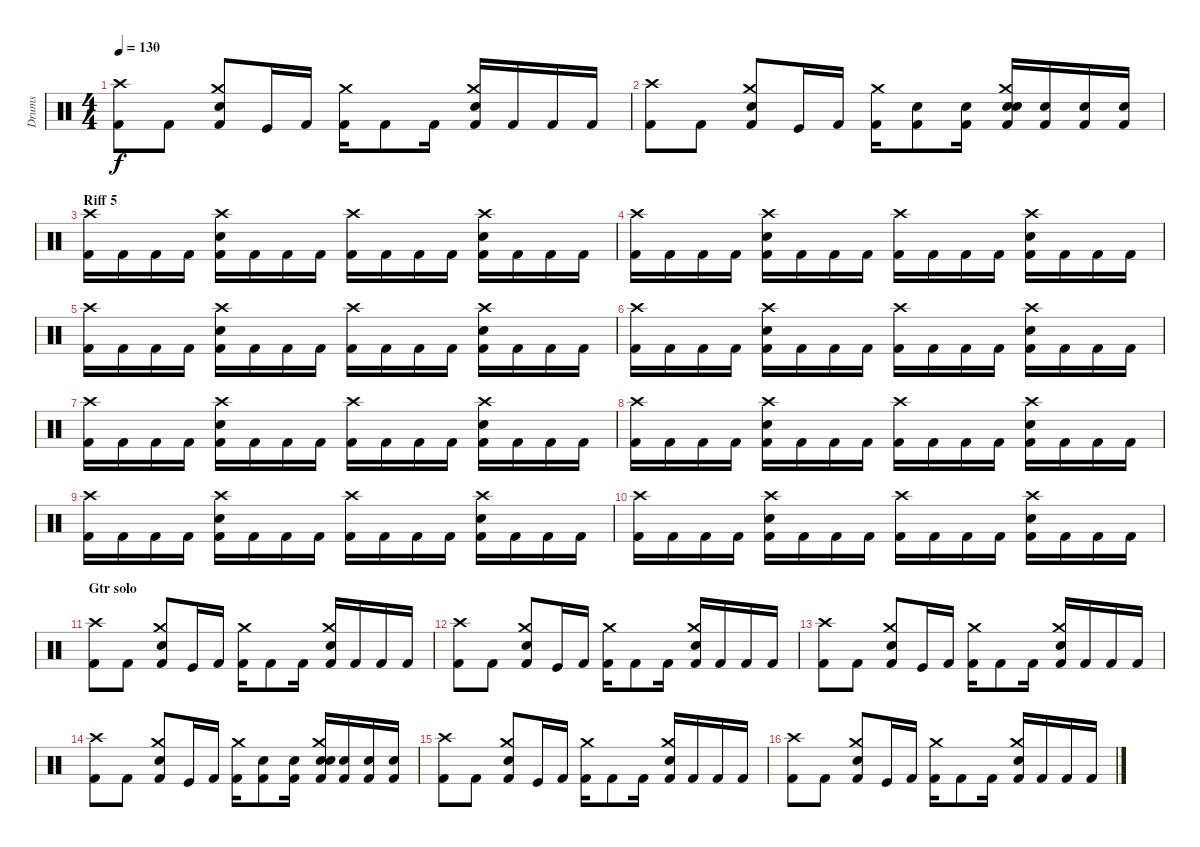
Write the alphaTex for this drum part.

\track ("Drums" "Drums") {instrument percussion}
\staff {score}
\articulation defaults
\ts (4 4)
\tempo 130
\clef neutral
\ks c
("Crash high (hit)" "Kick (hit) 2").8{dy f} "Kick (hit) 2".8 ("Crash medium (hit)" "Electric Snare (hit)" "Kick (hit) 2").8 "Kick (hit)".16 "Kick (hit) 2".16 ("Crash medium (hit)" "Kick (hit) 2").16 "Kick (hit) 2".8 "Kick (hit) 2".16 ("Crash medium (hit)" "Electric Snare (hit)" "Kick (hit) 2").16 "Kick (hit) 2".16 "Kick (hit) 2".16 "Kick (hit) 2".16 |
("Crash high (hit)" "Kick (hit) 2").8 "Kick (hit) 2".8 ("Crash medium (hit)" "Electric Snare (hit)" "Kick (hit) 2").8 "Kick (hit)".16 "Kick (hit) 2".16 ("Crash medium (hit)" "Kick (hit) 2").16 ("Electric Snare (hit)" "Kick (hit) 2").8 ("Electric Snare (hit)" "Kick (hit) 2").16 ("Crash medium (hit)" "Electric Snare (hit)" "Electric Snare (hit)" "Kick (hit) 2").16 ("Electric Snare (hit)" "Kick (hit) 2").16 ("Electric Snare (hit)" "Kick (hit) 2").16 ("Electric Snare (hit)" "Kick (hit) 2").16 |
\section ("" "Riff 5")
("Crash high (hit)" "Kick (hit) 2").16 "Kick (hit) 2".16 "Kick (hit) 2".16 "Kick (hit) 2".16 ("Crash high (hit)" "Electric Snare (hit)" "Kick (hit) 2").16 "Kick (hit) 2".16 "Kick (hit) 2".16 "Kick (hit) 2".16 ("Crash high (hit)" "Kick (hit) 2").16 "Kick (hit) 2".16 "Kick (hit) 2".16 "Kick (hit) 2".16 ("Crash high (hit)" "Electric Snare (hit)" "Kick (hit) 2").16 "Kick (hit) 2".16 "Kick (hit) 2".16 "Kick (hit) 2".16 |
("Crash high (hit)" "Kick (hit) 2").16 "Kick (hit) 2".16 "Kick (hit) 2".16 "Kick (hit) 2".16 ("Crash high (hit)" "Electric Snare (hit)" "Kick (hit) 2").16 "Kick (hit) 2".16 "Kick (hit) 2".16 "Kick (hit) 2".16 ("Crash high (hit)" "Kick (hit) 2").16 "Kick (hit) 2".16 "Kick (hit) 2".16 "Kick (hit) 2".16 ("Crash high (hit)" "Electric Snare (hit)" "Kick (hit) 2").16 "Kick (hit) 2".16 "Kick (hit) 2".16 "Kick (hit) 2".16 |
("Crash high (hit)" "Kick (hit) 2").16 "Kick (hit) 2".16 "Kick (hit) 2".16 "Kick (hit) 2".16 ("Crash high (hit)" "Electric Snare (hit)" "Kick (hit) 2").16 "Kick (hit) 2".16 "Kick (hit) 2".16 "Kick (hit) 2".16 ("Crash high (hit)" "Kick (hit) 2").16 "Kick (hit) 2".16 "Kick (hit) 2".16 "Kick (hit) 2".16 ("Crash high (hit)" "Electric Snare (hit)" "Kick (hit) 2").16 "Kick (hit) 2".16 "Kick (hit) 2".16 "Kick (hit) 2".16 |
("Crash high (hit)" "Kick (hit) 2").16 "Kick (hit) 2".16 "Kick (hit) 2".16 "Kick (hit) 2".16 ("Crash high (hit)" "Electric Snare (hit)" "Kick (hit) 2").16 "Kick (hit) 2".16 "Kick (hit) 2".16 "Kick (hit) 2".16 ("Crash high (hit)" "Kick (hit) 2").16 "Kick (hit) 2".16 "Kick (hit) 2".16 "Kick (hit) 2".16 ("Crash high (hit)" "Electric Snare (hit)" "Kick (hit) 2").16 "Kick (hit) 2".16 "Kick (hit) 2".16 "Kick (hit) 2".16 |
("Crash high (hit)" "Kick (hit) 2").16 "Kick (hit) 2".16 "Kick (hit) 2".16 "Kick (hit) 2".16 ("Crash high (hit)" "Electric Snare (hit)" "Kick (hit) 2").16 "Kick (hit) 2".16 "Kick (hit) 2".16 "Kick (hit) 2".16 ("Crash high (hit)" "Kick (hit) 2").16 "Kick (hit) 2".16 "Kick (hit) 2".16 "Kick (hit) 2".16 ("Crash high (hit)" "Electric Snare (hit)" "Kick (hit) 2").16 "Kick (hit) 2".16 "Kick (hit) 2".16 "Kick (hit) 2".16 |
("Crash high (hit)" "Kick (hit) 2").16 "Kick (hit) 2".16 "Kick (hit) 2".16 "Kick (hit) 2".16 ("Crash high (hit)" "Electric Snare (hit)" "Kick (hit) 2").16 "Kick (hit) 2".16 "Kick (hit) 2".16 "Kick (hit) 2".16 ("Crash high (hit)" "Kick (hit) 2").16 "Kick (hit) 2".16 "Kick (hit) 2".16 "Kick (hit) 2".16 ("Crash high (hit)" "Electric Snare (hit)" "Kick (hit) 2").16 "Kick (hit) 2".16 "Kick (hit) 2".16 "Kick (hit) 2".16 |
("Crash high (hit)" "Kick (hit) 2").16 "Kick (hit) 2".16 "Kick (hit) 2".16 "Kick (hit) 2".16 ("Crash high (hit)" "Electric Snare (hit)" "Kick (hit) 2").16 "Kick (hit) 2".16 "Kick (hit) 2".16 "Kick (hit) 2".16 ("Crash high (hit)" "Kick (hit) 2").16 "Kick (hit) 2".16 "Kick (hit) 2".16 "Kick (hit) 2".16 ("Crash high (hit)" "Electric Snare (hit)" "Kick (hit) 2").16 "Kick (hit) 2".16 "Kick (hit) 2".16 "Kick (hit) 2".16 |
("Crash high (hit)" "Kick (hit) 2").16 "Kick (hit) 2".16 "Kick (hit) 2".16 "Kick (hit) 2".16 ("Crash high (hit)" "Electric Snare (hit)" "Kick (hit) 2").16 "Kick (hit) 2".16 "Kick (hit) 2".16 "Kick (hit) 2".16 ("Crash high (hit)" "Kick (hit) 2").16 "Kick (hit) 2".16 "Kick (hit) 2".16 "Kick (hit) 2".16 ("Crash high (hit)" "Electric Snare (hit)" "Kick (hit) 2").16 "Kick (hit) 2".16 "Kick (hit) 2".16 "Kick (hit) 2".16 |
\section ("" "Gtr solo")
("Crash high (hit)" "Kick (hit) 2").8 "Kick (hit) 2".8 ("Crash medium (hit)" "Electric Snare (hit)" "Kick (hit) 2").8 "Kick (hit)".16 "Kick (hit) 2".16 ("Crash medium (hit)" "Kick (hit) 2").16 "Kick (hit) 2".8 "Kick (hit) 2".16 ("Crash medium (hit)" "Electric Snare (hit)" "Kick (hit) 2").16 "Kick (hit) 2".16 "Kick (hit) 2".16 "Kick (hit) 2".16 |
("Crash high (hit)" "Kick (hit) 2").8 "Kick (hit) 2".8 ("Crash medium (hit)" "Electric Snare (hit)" "Kick (hit) 2").8 "Kick (hit)".16 "Kick (hit) 2".16 ("Crash medium (hit)" "Kick (hit) 2").16 "Kick (hit) 2".8 "Kick (hit) 2".16 ("Crash medium (hit)" "Electric Snare (hit)" "Kick (hit) 2").16 "Kick (hit) 2".16 "Kick (hit) 2".16 "Kick (hit) 2".16 |
("Crash high (hit)" "Kick (hit) 2").8 "Kick (hit) 2".8 ("Crash medium (hit)" "Electric Snare (hit)" "Kick (hit) 2").8 "Kick (hit)".16 "Kick (hit) 2".16 ("Crash medium (hit)" "Kick (hit) 2").16 "Kick (hit) 2".8 "Kick (hit) 2".16 ("Crash medium (hit)" "Electric Snare (hit)" "Kick (hit) 2").16 "Kick (hit) 2".16 "Kick (hit) 2".16 "Kick (hit) 2".16 |
("Crash high (hit)" "Kick (hit) 2").8 "Kick (hit) 2".8 ("Crash medium (hit)" "Electric Snare (hit)" "Kick (hit) 2").8 "Kick (hit)".16 "Kick (hit) 2".16 ("Crash medium (hit)" "Kick (hit) 2").16 ("Electric Snare (hit)" "Kick (hit) 2").8 ("Electric Snare (hit)" "Kick (hit) 2").16 ("Crash medium (hit)" "Electric Snare (hit)" "Electric Snare (hit)" "Kick (hit) 2").16 ("Electric Snare (hit)" "Kick (hit) 2").16 ("Electric Snare (hit)" "Kick (hit) 2").16 ("Electric Snare (hit)" "Kick (hit) 2").16 |
("Crash high (hit)" "Kick (hit) 2").8 "Kick (hit) 2".8 ("Crash medium (hit)" "Electric Snare (hit)" "Kick (hit) 2").8 "Kick (hit)".16 "Kick (hit) 2".16 ("Crash medium (hit)" "Kick (hit) 2").16 "Kick (hit) 2".8 "Kick (hit) 2".16 ("Crash medium (hit)" "Electric Snare (hit)" "Kick (hit) 2").16 "Kick (hit) 2".16 "Kick (hit) 2".16 "Kick (hit) 2".16 |
("Crash high (hit)" "Kick (hit) 2").8 "Kick (hit) 2".8 ("Crash medium (hit)" "Electric Snare (hit)" "Kick (hit) 2").8 "Kick (hit)".16 "Kick (hit) 2".16 ("Crash medium (hit)" "Kick (hit) 2").16 "Kick (hit) 2".8 "Kick (hit) 2".16 ("Crash medium (hit)" "Electric Snare (hit)" "Kick (hit) 2").16 "Kick (hit) 2".16 "Kick (hit) 2".16 "Kick (hit) 2".16
